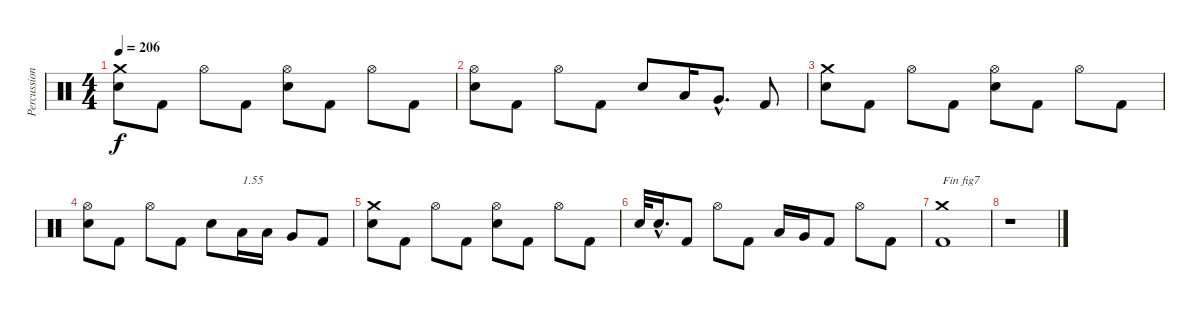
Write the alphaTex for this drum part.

\track ("Percussions" "Percussion") {instrument percussion}
\staff {score}
\articulation defaults
\ts (4 4)
\tempo 206
\clef neutral
\ks c
("Electric Snare (hit)" "Crash medium (hit)").8{dy f} "Kick (hit) 2".8 "Hi-Hat (open)".8 "Kick (hit) 2".8 ("Electric Snare (hit)" "Hi-Hat (open)").8 "Kick (hit) 2".8 "Hi-Hat (open)".8 "Kick (hit) 2".8 |
("Electric Snare (hit)" "Hi-Hat (open)").8 "Kick (hit) 2".8 "Hi-Hat (open)".8 "Kick (hit) 2".8 "Electric Snare (hit)".8 "Low Tom (hit)".16 "Very Low Tom (hit)"{hac}.8{d} "Kick (hit) 2".8 |
("Electric Snare (hit)" "Crash medium (hit)").8 "Kick (hit) 2".8 "Hi-Hat (open)".8 "Kick (hit) 2".8 ("Electric Snare (hit)" "Hi-Hat (open)").8 "Kick (hit) 2".8 "Hi-Hat (open)".8 "Kick (hit) 2".8 |
("Electric Snare (hit)" "Hi-Hat (open)").8 "Kick (hit) 2".8 "Hi-Hat (open)".8 "Kick (hit) 2".8 "Electric Snare (hit)".8 "Low Tom (hit)".16{txt "1.55"} "Low Tom (hit)".16 "Very Low Tom (hit)".8 "Kick (hit) 2".8 |
("Electric Snare (hit)" "Crash medium (hit)").8 "Kick (hit) 2".8 "Hi-Hat (open)".8 "Kick (hit) 2".8 ("Electric Snare (hit)" "Hi-Hat (open)").8 "Kick (hit) 2".8 "Hi-Hat (open)".8 "Kick (hit) 2".8 |
"Electric Snare (hit)".32 "Electric Snare (hit)"{hac}.16{d} "Kick (hit) 2".8 "Hi-Hat (open)".8 "Kick (hit) 2".8 "Low Tom (hit)".16 "Very Low Tom (hit)".16 "Kick (hit) 2".8 "Hi-Hat (open)".8 "Kick (hit) 2".8 |
("Kick (hit) 2" "Crash medium (hit)").1{txt "Fin fig7"} |
r.1
